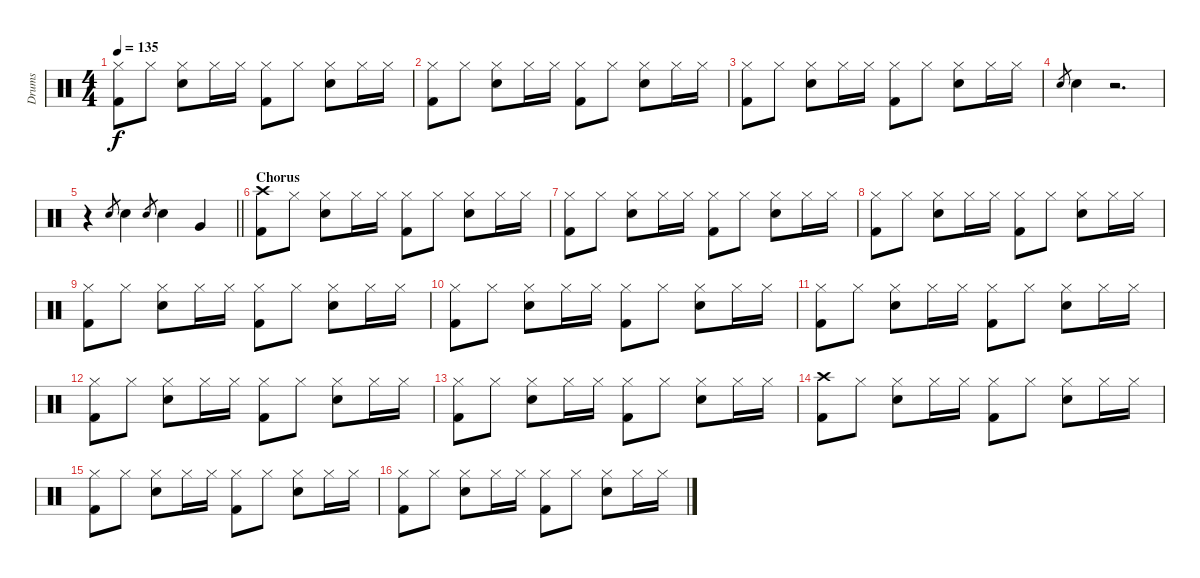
\track ("Drums" "Drums") {instrument percussion}
\staff {score}
\articulation defaults
\ts (4 4)
\tempo 135
\clef neutral
\ks c
("Hi-Hat (closed)" "Kick (hit) 2").8{dy f} "Hi-Hat (closed)".8 ("Hi-Hat (closed)" "Snare (hit) 2").8 "Hi-Hat (closed)".16 "Hi-Hat (closed)".16 ("Hi-Hat (closed)" "Kick (hit) 2").8 "Hi-Hat (closed)".8 ("Hi-Hat (closed)" "Snare (hit) 2").8 "Hi-Hat (closed)".16 "Hi-Hat (closed)".16 |
("Hi-Hat (closed)" "Kick (hit) 2").8 "Hi-Hat (closed)".8 ("Hi-Hat (closed)" "Snare (hit) 2").8 "Hi-Hat (closed)".16 "Hi-Hat (closed)".16 ("Hi-Hat (closed)" "Kick (hit) 2").8 "Hi-Hat (closed)".8 ("Hi-Hat (closed)" "Snare (hit) 2").8 "Hi-Hat (closed)".16 "Hi-Hat (closed)".16 |
("Hi-Hat (closed)" "Kick (hit) 2").8 "Hi-Hat (closed)".8 ("Hi-Hat (closed)" "Snare (hit) 2").8 "Hi-Hat (closed)".16 "Hi-Hat (closed)".16 ("Hi-Hat (closed)" "Kick (hit) 2").8 "Hi-Hat (closed)".8 ("Hi-Hat (closed)" "Snare (hit) 2").8 "Hi-Hat (closed)".16 "Hi-Hat (closed)".16 |
"Snare (hit) 2".8{gr} "Snare (hit) 2".4 r.2{d} |
\barLineRight lightlight
r.4 "Snare (hit) 2".8{gr} "Snare (hit) 2".4 "Snare (hit) 2".8{gr} "Snare (hit) 2".4 "Very Low Tom (hit)".4 |
\section ("" "Chorus")
("Crash high (hit)" "Kick (hit) 2").8 "Hi-Hat (closed)".8 ("Hi-Hat (closed)" "Snare (hit) 2").8 "Hi-Hat (closed)".16 "Hi-Hat (closed)".16 ("Hi-Hat (closed)" "Kick (hit) 2").8 "Hi-Hat (closed)".8 ("Hi-Hat (closed)" "Snare (hit) 2").8 "Hi-Hat (closed)".16 "Hi-Hat (closed)".16 |
("Hi-Hat (closed)" "Kick (hit) 2").8 "Hi-Hat (closed)".8 ("Hi-Hat (closed)" "Snare (hit) 2").8 "Hi-Hat (closed)".16 "Hi-Hat (closed)".16 ("Hi-Hat (closed)" "Kick (hit) 2").8 "Hi-Hat (closed)".8 ("Hi-Hat (closed)" "Snare (hit) 2").8 "Hi-Hat (closed)".16 "Hi-Hat (closed)".16 |
("Hi-Hat (closed)" "Kick (hit) 2").8 "Hi-Hat (closed)".8 ("Hi-Hat (closed)" "Snare (hit) 2").8 "Hi-Hat (closed)".16 "Hi-Hat (closed)".16 ("Hi-Hat (closed)" "Kick (hit) 2").8 "Hi-Hat (closed)".8 ("Hi-Hat (closed)" "Snare (hit) 2").8 "Hi-Hat (closed)".16 "Hi-Hat (closed)".16 |
("Hi-Hat (closed)" "Kick (hit) 2").8 "Hi-Hat (closed)".8 ("Hi-Hat (closed)" "Snare (hit) 2").8 "Hi-Hat (closed)".16 "Hi-Hat (closed)".16 ("Hi-Hat (closed)" "Kick (hit) 2").8 "Hi-Hat (closed)".8 ("Hi-Hat (closed)" "Snare (hit) 2").8 "Hi-Hat (closed)".16 "Hi-Hat (closed)".16 |
("Hi-Hat (closed)" "Kick (hit) 2").8 "Hi-Hat (closed)".8 ("Hi-Hat (closed)" "Snare (hit) 2").8 "Hi-Hat (closed)".16 "Hi-Hat (closed)".16 ("Hi-Hat (closed)" "Kick (hit) 2").8 "Hi-Hat (closed)".8 ("Hi-Hat (closed)" "Snare (hit) 2").8 "Hi-Hat (closed)".16 "Hi-Hat (closed)".16 |
("Hi-Hat (closed)" "Kick (hit) 2").8 "Hi-Hat (closed)".8 ("Hi-Hat (closed)" "Snare (hit) 2").8 "Hi-Hat (closed)".16 "Hi-Hat (closed)".16 ("Hi-Hat (closed)" "Kick (hit) 2").8 "Hi-Hat (closed)".8 ("Hi-Hat (closed)" "Snare (hit) 2").8 "Hi-Hat (closed)".16 "Hi-Hat (closed)".16 |
("Hi-Hat (closed)" "Kick (hit) 2").8 "Hi-Hat (closed)".8 ("Hi-Hat (closed)" "Snare (hit) 2").8 "Hi-Hat (closed)".16 "Hi-Hat (closed)".16 ("Hi-Hat (closed)" "Kick (hit) 2").8 "Hi-Hat (closed)".8 ("Hi-Hat (closed)" "Snare (hit) 2").8 "Hi-Hat (closed)".16 "Hi-Hat (closed)".16 |
("Hi-Hat (closed)" "Kick (hit) 2").8 "Hi-Hat (closed)".8 ("Hi-Hat (closed)" "Snare (hit) 2").8 "Hi-Hat (closed)".16 "Hi-Hat (closed)".16 ("Hi-Hat (closed)" "Kick (hit) 2").8 "Hi-Hat (closed)".8 ("Hi-Hat (closed)" "Snare (hit) 2").8 "Hi-Hat (closed)".16 "Hi-Hat (closed)".16 |
("Crash high (hit)" "Kick (hit) 2").8 "Hi-Hat (closed)".8 ("Hi-Hat (closed)" "Snare (hit) 2").8 "Hi-Hat (closed)".16 "Hi-Hat (closed)".16 ("Hi-Hat (closed)" "Kick (hit) 2").8 "Hi-Hat (closed)".8 ("Hi-Hat (closed)" "Snare (hit) 2").8 "Hi-Hat (closed)".16 "Hi-Hat (closed)".16 |
("Hi-Hat (closed)" "Kick (hit) 2").8 "Hi-Hat (closed)".8 ("Hi-Hat (closed)" "Snare (hit) 2").8 "Hi-Hat (closed)".16 "Hi-Hat (closed)".16 ("Hi-Hat (closed)" "Kick (hit) 2").8 "Hi-Hat (closed)".8 ("Hi-Hat (closed)" "Snare (hit) 2").8 "Hi-Hat (closed)".16 "Hi-Hat (closed)".16 |
("Hi-Hat (closed)" "Kick (hit) 2").8 "Hi-Hat (closed)".8 ("Hi-Hat (closed)" "Snare (hit) 2").8 "Hi-Hat (closed)".16 "Hi-Hat (closed)".16 ("Hi-Hat (closed)" "Kick (hit) 2").8 "Hi-Hat (closed)".8 ("Hi-Hat (closed)" "Snare (hit) 2").8 "Hi-Hat (closed)".16 "Hi-Hat (closed)".16
